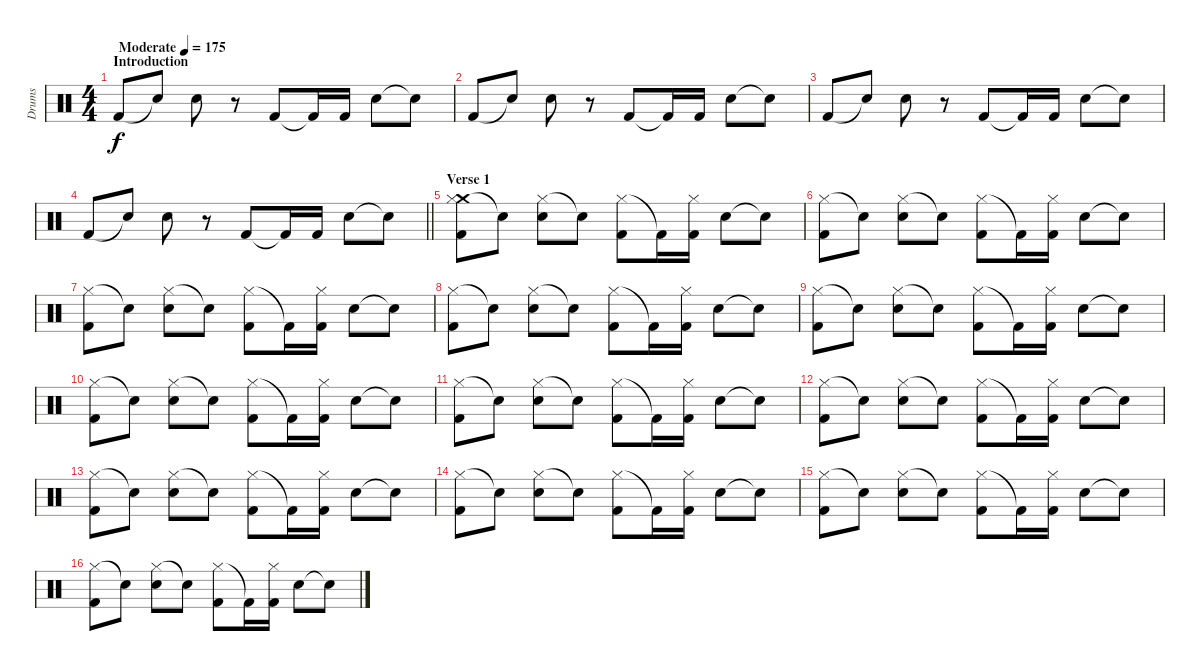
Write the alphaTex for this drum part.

\track ("Drums" "Drums") {instrument percussion}
\staff {score}
\articulation defaults
\ts (4 4)
\section ("" "Introduction")
\tempo (175 "Moderate")
\clef neutral
\ks c "Kick (hit) 2".8{dy f} "Snare (hit)"{t}.8 "Electric Snare (hit)".8
r.8 "Kick (hit) 2".8 "Kick (hit) 2"{t}.16 "Kick (hit) 2".16 "Electric Snare (hit)".8 "Snare (hit)"{t}.8 |
"Kick (hit) 2".8 "Snare (hit)"{t}.8 "Electric Snare (hit)".8 r.8 "Kick (hit) 2".8 "Kick (hit) 2"{t}.16 "Kick (hit) 2".16 "Electric Snare (hit)".8 "Snare (hit)"{t}.8 |
"Kick (hit) 2".8 "Snare (hit)"{t}.8 "Electric Snare (hit)".8 r.8 "Kick (hit) 2".8 "Kick (hit) 2"{t}.16 "Kick (hit) 2".16 "Electric Snare (hit)".8 "Snare (hit)"{t}.8 |
\barLineRight lightlight "Kick (hit) 2".8 "Snare (hit)"{t}.8 "Electric Snare (hit)".8
r.8 "Kick (hit) 2".8 "Kick (hit) 2"{t}.16 "Kick (hit) 2".16 "Electric Snare (hit)".8 "Snare (hit)"{t}.8 |
\section ("" "Verse 1")
("Crash medium (hit)" "Hi-Hat (closed)" "Kick (hit) 2").8 "Snare (hit)"{t}.8 ("Hi-Hat (closed)" "Electric Snare (hit)").8 "Snare (hit)"{t}.8 ("Hi-Hat (closed)" "Kick (hit) 2").8 "Kick (hit) 2"{t}.16 ("Hi-Hat (closed)" "Kick (hit) 2").16 "Electric Snare (hit)".8 "Snare (hit)"{t}.8 |
("Hi-Hat (closed)" "Kick (hit) 2").8 "Snare (hit)"{t}.8 ("Hi-Hat (closed)" "Electric Snare (hit)").8 "Snare (hit)"{t}.8 ("Hi-Hat (closed)" "Kick (hit) 2").8 "Kick (hit) 2"{t}.16 ("Hi-Hat (closed)" "Kick (hit) 2").16 "Electric Snare (hit)".8 "Snare (hit)"{t}.8 |
("Hi-Hat (closed)" "Kick (hit) 2").8 "Snare (hit)"{t}.8 ("Hi-Hat (closed)" "Electric Snare (hit)").8 "Snare (hit)"{t}.8 ("Hi-Hat (closed)" "Kick (hit) 2").8 "Kick (hit) 2"{t}.16 ("Hi-Hat (closed)" "Kick (hit) 2").16 "Electric Snare (hit)".8 "Snare (hit)"{t}.8 |
("Hi-Hat (closed)" "Kick (hit) 2").8 "Snare (hit)"{t}.8 ("Hi-Hat (closed)" "Electric Snare (hit)").8 "Snare (hit)"{t}.8 ("Hi-Hat (closed)" "Kick (hit) 2").8 "Kick (hit) 2"{t}.16 ("Hi-Hat (closed)" "Kick (hit) 2").16 "Electric Snare (hit)".8 "Snare (hit)"{t}.8 |
("Hi-Hat (closed)" "Kick (hit) 2").8 "Snare (hit)"{t}.8 ("Hi-Hat (closed)" "Electric Snare (hit)").8 "Snare (hit)"{t}.8 ("Hi-Hat (closed)" "Kick (hit) 2").8 "Kick (hit) 2"{t}.16 ("Hi-Hat (closed)" "Kick (hit) 2").16 "Electric Snare (hit)".8 "Snare (hit)"{t}.8 |
("Hi-Hat (closed)" "Kick (hit) 2").8 "Snare (hit)"{t}.8 ("Hi-Hat (closed)" "Electric Snare (hit)").8 "Snare (hit)"{t}.8 ("Hi-Hat (closed)" "Kick (hit) 2").8 "Kick (hit) 2"{t}.16 ("Hi-Hat (closed)" "Kick (hit) 2").16 "Electric Snare (hit)".8 "Snare (hit)"{t}.8 |
("Hi-Hat (closed)" "Kick (hit) 2").8 "Snare (hit)"{t}.8 ("Hi-Hat (closed)" "Electric Snare (hit)").8 "Snare (hit)"{t}.8 ("Hi-Hat (closed)" "Kick (hit) 2").8 "Kick (hit) 2"{t}.16 ("Hi-Hat (closed)" "Kick (hit) 2").16 "Electric Snare (hit)".8 "Snare (hit)"{t}.8 |
("Hi-Hat (closed)" "Kick (hit) 2").8 "Snare (hit)"{t}.8 ("Hi-Hat (closed)" "Electric Snare (hit)").8 "Snare (hit)"{t}.8 ("Hi-Hat (closed)" "Kick (hit) 2").8 "Kick (hit) 2"{t}.16 ("Hi-Hat (closed)" "Kick (hit) 2").16 "Electric Snare (hit)".8 "Snare (hit)"{t}.8 |
("Hi-Hat (closed)" "Kick (hit) 2").8 "Snare (hit)"{t}.8 ("Hi-Hat (closed)" "Electric Snare (hit)").8 "Snare (hit)"{t}.8 ("Hi-Hat (closed)" "Kick (hit) 2").8 "Kick (hit) 2"{t}.16 ("Hi-Hat (closed)" "Kick (hit) 2").16 "Electric Snare (hit)".8 "Snare (hit)"{t}.8 |
("Hi-Hat (closed)" "Kick (hit) 2").8 "Snare (hit)"{t}.8 ("Hi-Hat (closed)" "Electric Snare (hit)").8 "Snare (hit)"{t}.8 ("Hi-Hat (closed)" "Kick (hit) 2").8 "Kick (hit) 2"{t}.16 ("Hi-Hat (closed)" "Kick (hit) 2").16 "Electric Snare (hit)".8 "Snare (hit)"{t}.8 |
("Hi-Hat (closed)" "Kick (hit) 2").8 "Snare (hit)"{t}.8 ("Hi-Hat (closed)" "Electric Snare (hit)").8 "Snare (hit)"{t}.8 ("Hi-Hat (closed)" "Kick (hit) 2").8 "Kick (hit) 2"{t}.16 ("Hi-Hat (closed)" "Kick (hit) 2").16 "Electric Snare (hit)".8 "Snare (hit)"{t}.8 |
("Hi-Hat (closed)" "Kick (hit) 2").8 "Snare (hit)"{t}.8 ("Hi-Hat (closed)" "Electric Snare (hit)").8 "Snare (hit)"{t}.8 ("Hi-Hat (closed)" "Kick (hit) 2").8 "Kick (hit) 2"{t}.16 ("Hi-Hat (closed)" "Kick (hit) 2").16 "Electric Snare (hit)".8 "Snare (hit)"{t}.8
